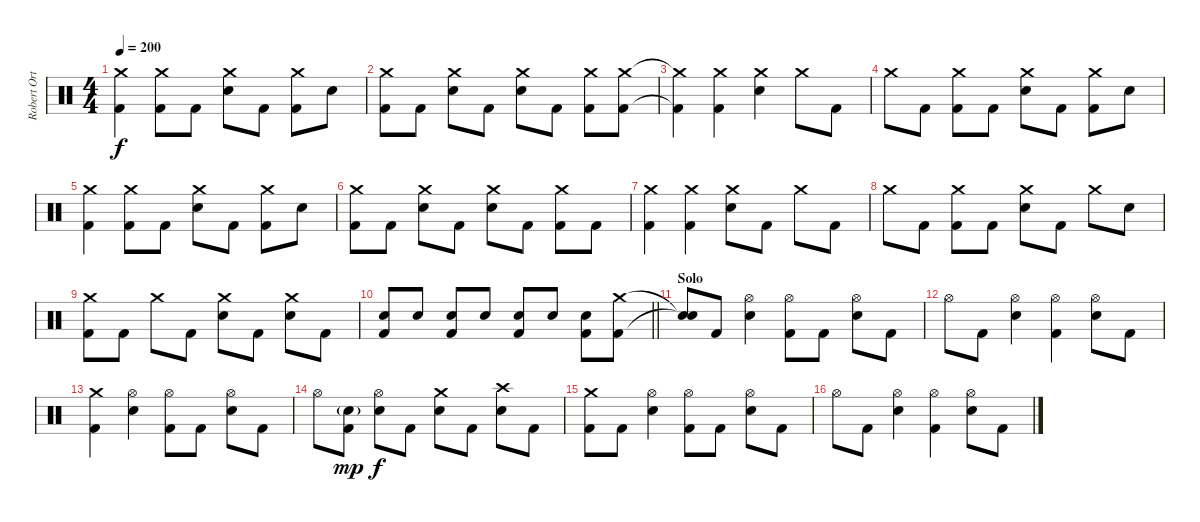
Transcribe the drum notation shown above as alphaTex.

\track ("Robert Ortiz - Drums" "Robert Ort") {instrument percussion}
\staff {score}
\articulation defaults
\ts (4 4)
\tempo 200
\clef neutral
\ks c
("Crash medium (hit)" "Kick (hit) 2").4{dy f} ("Crash medium (hit)" "Kick (hit) 2").8 "Kick (hit) 2".8 ("Crash medium (hit)" "Electric Snare (hit)").8 "Kick (hit) 2".8 ("Crash medium (hit)" "Kick (hit) 2").8 "Electric Snare (hit)".8 |
("Crash medium (hit)" "Kick (hit) 2").8 "Kick (hit) 2".8 ("Crash medium (hit)" "Electric Snare (hit)").8 "Kick (hit) 2".8 ("Crash medium (hit)" "Electric Snare (hit)").8 "Kick (hit) 2".8 ("Crash medium (hit)" "Kick (hit) 2").8 ("Crash medium (hit)" "Kick (hit) 2").8 |
("Crash medium (hit)"{t} "Kick (hit) 2"{t}).4 ("Crash medium (hit)" "Kick (hit) 2").4 ("Crash medium (hit)" "Electric Snare (hit)").4 "Crash medium (hit)".8 "Kick (hit) 2".8 |
"Crash medium (hit)".8 "Kick (hit) 2".8 ("Crash medium (hit)" "Kick (hit) 2").8 "Kick (hit) 2".8 ("Crash medium (hit)" "Electric Snare (hit)").8 "Kick (hit) 2".8 ("Crash medium (hit)" "Kick (hit) 2").8 "Electric Snare (hit)".8 |
("Crash medium (hit)" "Kick (hit) 2").4 ("Crash medium (hit)" "Kick (hit) 2").8 "Kick (hit) 2".8 ("Crash medium (hit)" "Electric Snare (hit)").8 "Kick (hit) 2".8 ("Crash medium (hit)" "Kick (hit) 2").8 "Electric Snare (hit)".8 |
("Crash medium (hit)" "Kick (hit) 2").8 "Kick (hit) 2".8 ("Crash medium (hit)" "Electric Snare (hit)").8 "Kick (hit) 2".8 ("Crash medium (hit)" "Electric Snare (hit)").8 "Kick (hit) 2".8 ("Crash medium (hit)" "Kick (hit) 2").8 "Kick (hit) 2".8 |
("Crash medium (hit)" "Kick (hit) 2").4 ("Crash medium (hit)" "Kick (hit) 2").4 ("Crash medium (hit)" "Electric Snare (hit)").8 "Kick (hit) 2".8 "Crash medium (hit)".8 "Kick (hit) 2".8 |
"Crash medium (hit)".8 "Kick (hit) 2".8 ("Crash medium (hit)" "Kick (hit) 2").8 "Kick (hit) 2".8 ("Crash medium (hit)" "Electric Snare (hit)").8 "Kick (hit) 2".8 "Crash medium (hit)".8 "Electric Snare (hit)".8 |
("Crash medium (hit)" "Kick (hit) 2").8 "Kick (hit) 2".8 "Crash medium (hit)".8 "Kick (hit) 2".8 ("Crash medium (hit)" "Electric Snare (hit)").8 "Kick (hit) 2".8 ("Crash medium (hit)" "Electric Snare (hit)").8 "Kick (hit) 2".8 |
\barLineRight lightlight
("Electric Snare (hit)" "Kick (hit) 2").8 "Electric Snare (hit)".8 ("Electric Snare (hit)" "Kick (hit) 2").8 "Electric Snare (hit)".8 ("Electric Snare (hit)" "Kick (hit) 2").8 "Electric Snare (hit)".8 ("Electric Snare (hit)" "Kick (hit) 2").8 ("Crash medium (hit)" "Kick (hit) 2").8 |
\section ("" "Solo")
("Snare (hit)"{t} "Snare (hit)"{t}).8 "Kick (hit) 2".8 ("Hi-Hat (open)" "Electric Snare (hit)").4 ("Hi-Hat (open)" "Kick (hit) 2").8 "Kick (hit) 2".8 ("Hi-Hat (open)" "Electric Snare (hit)").8 "Kick (hit) 2".8 |
"Hi-Hat (open)".8 "Kick (hit) 2".8 ("Hi-Hat (open)" "Electric Snare (hit)").4 ("Hi-Hat (open)" "Kick (hit) 2").4 ("Hi-Hat (open)" "Electric Snare (hit)").8 "Kick (hit) 2".8 |
("Crash medium (hit)" "Kick (hit) 2").4 ("Hi-Hat (open)" "Electric Snare (hit)").4 ("Hi-Hat (open)" "Kick (hit) 2").8 "Kick (hit) 2".8 ("Hi-Hat (open)" "Electric Snare (hit)").8 "Kick (hit) 2".8 |
"Hi-Hat (open)".8 ("Electric Snare (hit)"{g} "Kick (hit) 2").8{dy mp} ("Hi-Hat (open)" "Electric Snare (hit)").8{dy f} "Kick (hit) 2".8 ("Crash medium (hit)" "Electric Snare (hit)").8 "Kick (hit) 2".8 ("Crash high (hit)" "Electric Snare (hit)").8 "Kick (hit) 2".8 |
("Crash medium (hit)" "Kick (hit) 2").8 "Kick (hit) 2".8 ("Hi-Hat (open)" "Electric Snare (hit)").4 ("Hi-Hat (open)" "Kick (hit) 2").8 "Kick (hit) 2".8 ("Hi-Hat (open)" "Electric Snare (hit)").8 "Kick (hit) 2".8 |
"Hi-Hat (open)".8 "Kick (hit) 2".8 ("Hi-Hat (open)" "Electric Snare (hit)").4 ("Hi-Hat (open)" "Kick (hit) 2").4 ("Hi-Hat (open)" "Electric Snare (hit)").8 "Kick (hit) 2".8
